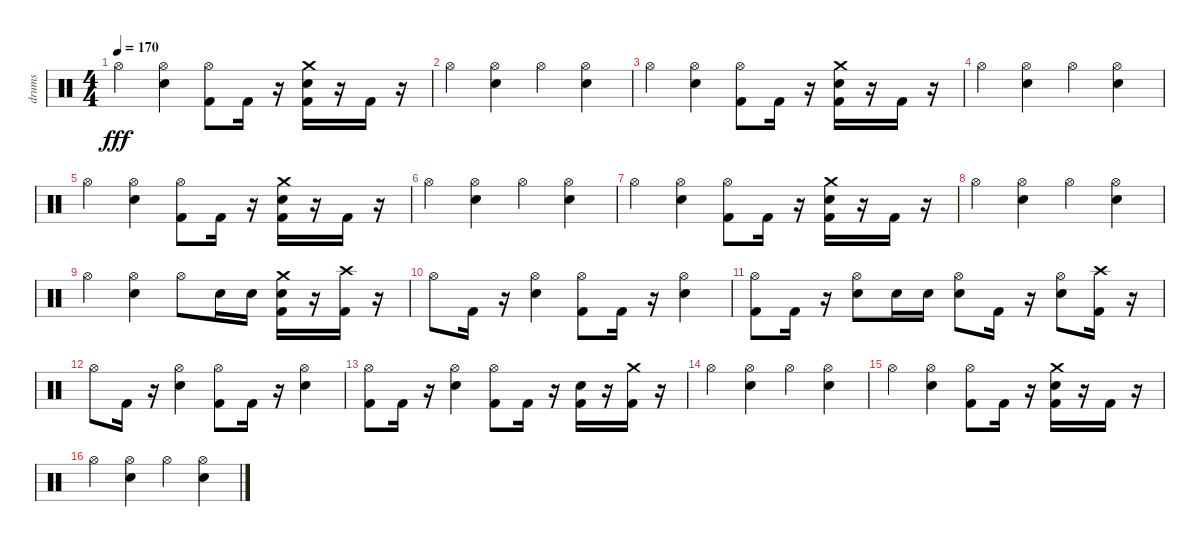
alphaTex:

\track ("drums" "drums") {instrument percussion}
\staff {score}
\articulation defaults
\ts (4 4)
\tempo 170
\clef neutral
\ks c "Hi-Hat (open)".4{dy fff}
("Electric Snare (hit)" "Hi-Hat (open)").4 ("Kick (hit) 2" "Hi-Hat (open)").8 "Kick (hit) 2".16 r.16 ("Kick (hit) 2" "Electric Snare (hit)" "Crash medium (hit)").16 r.16 "Kick (hit) 2".16 r.16 |
"Hi-Hat (open)".4 ("Electric Snare (hit)" "Hi-Hat (open)").4 "Hi-Hat (open)".4 ("Electric Snare (hit)" "Hi-Hat (open)").4 |
"Hi-Hat (open)".4 ("Electric Snare (hit)" "Hi-Hat (open)").4 ("Kick (hit) 2" "Hi-Hat (open)").8 "Kick (hit) 2".16 r.16 ("Kick (hit) 2" "Electric Snare (hit)" "Crash medium (hit)").16 r.16 "Kick (hit) 2".16 r.16 |
"Hi-Hat (open)".4 ("Electric Snare (hit)" "Hi-Hat (open)").4 "Hi-Hat (open)".4 ("Electric Snare (hit)" "Hi-Hat (open)").4 |
"Hi-Hat (open)".4 ("Electric Snare (hit)" "Hi-Hat (open)").4 ("Kick (hit) 2" "Hi-Hat (open)").8 "Kick (hit) 2".16 r.16 ("Kick (hit) 2" "Electric Snare (hit)" "Crash medium (hit)").16 r.16 "Kick (hit) 2".16 r.16 |
"Hi-Hat (open)".4 ("Electric Snare (hit)" "Hi-Hat (open)").4 "Hi-Hat (open)".4 ("Electric Snare (hit)" "Hi-Hat (open)").4 |
"Hi-Hat (open)".4 ("Electric Snare (hit)" "Hi-Hat (open)").4 ("Kick (hit) 2" "Hi-Hat (open)").8 "Kick (hit) 2".16 r.16 ("Kick (hit) 2" "Electric Snare (hit)" "Crash medium (hit)").16 r.16 "Kick (hit) 2".16 r.16 |
"Hi-Hat (open)".4 ("Electric Snare (hit)" "Hi-Hat (open)").4 "Hi-Hat (open)".4 ("Electric Snare (hit)" "Hi-Hat (open)").4 |
"Hi-Hat (open)".4 ("Electric Snare (hit)" "Hi-Hat (open)").4 "Hi-Hat (open)".8 "Electric Snare (hit)".16 "Electric Snare (hit)".16 ("Kick (hit) 2" "Electric Snare (hit)" "Crash medium (hit)").16 r.16 ("Kick (hit) 2" "Crash high (hit)").16 r.16 |
"Hi-Hat (open)".8 "Kick (hit) 2".16 r.16 ("Electric Snare (hit)" "Hi-Hat (open)").4 ("Kick (hit) 2" "Hi-Hat (open)").8 "Kick (hit) 2".16 r.16 ("Electric Snare (hit)" "Hi-Hat (open)").4 |
("Kick (hit) 2" "Hi-Hat (open)").8 "Kick (hit) 2".16 r.16 ("Electric Snare (hit)" "Hi-Hat (open)").8 "Electric Snare (hit)".16 "Electric Snare (hit)".16 ("Hi-Hat (open)" "Electric Snare (hit)").8 "Kick (hit) 2".16 r.16 ("Hi-Hat (open)" "Electric Snare (hit)").8 ("Kick (hit) 2" "Crash high (hit)").16 r.16 |
"Hi-Hat (open)".8 "Kick (hit) 2".16 r.16 ("Electric Snare (hit)" "Hi-Hat (open)").4 ("Kick (hit) 2" "Hi-Hat (open)").8 "Kick (hit) 2".16 r.16 ("Electric Snare (hit)" "Hi-Hat (open)").4 |
("Kick (hit) 2" "Hi-Hat (open)").8 "Kick (hit) 2".16 r.16 ("Electric Snare (hit)" "Hi-Hat (open)").4 ("Kick (hit) 2" "Hi-Hat (open)").8 "Kick (hit) 2".16 r.16 ("Kick (hit) 2" "Electric Snare (hit)").16 r.16 ("Kick (hit) 2" "Crash medium (hit)").16 r.16 |
"Hi-Hat (open)".4 ("Electric Snare (hit)" "Hi-Hat (open)").4 "Hi-Hat (open)".4 ("Electric Snare (hit)" "Hi-Hat (open)").4 |
"Hi-Hat (open)".4 ("Electric Snare (hit)" "Hi-Hat (open)").4 ("Kick (hit) 2" "Hi-Hat (open)").8 "Kick (hit) 2".16 r.16 ("Kick (hit) 2" "Electric Snare (hit)" "Crash medium (hit)").16 r.16 "Kick (hit) 2".16 r.16 |
"Hi-Hat (open)".4 ("Electric Snare (hit)" "Hi-Hat (open)").4 "Hi-Hat (open)".4 ("Electric Snare (hit)" "Hi-Hat (open)").4
